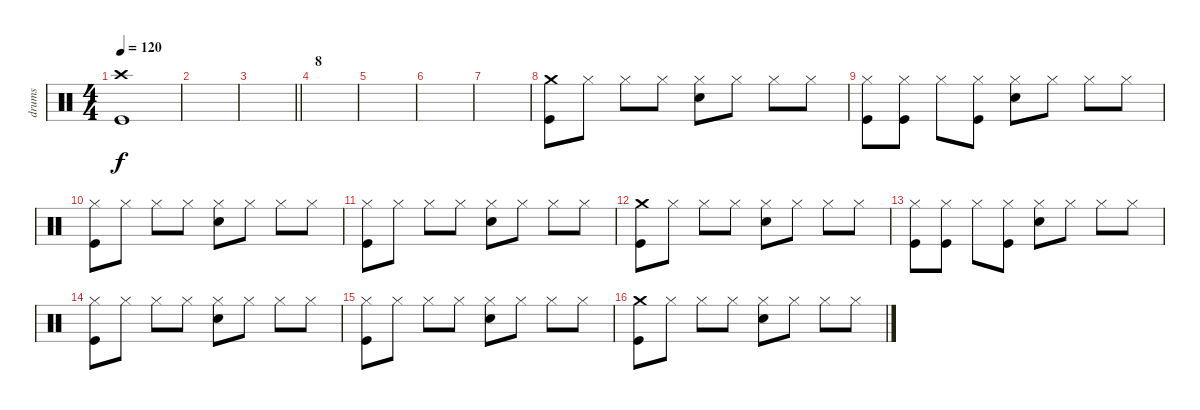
\track ("drums" "drums") {instrument percussion}
\staff {score}
\articulation defaults
\ts (4 4)
\tempo 120
\clef neutral
\ks c
("Crash high (hit)" "Kick (hit)").1{dy f} |
|
\barLineRight lightlight
|
\section ("" "8")
|
|
|
|
("Crash medium (hit)" "Kick (hit)").8 "Hi-Hat (closed)".8 "Hi-Hat (closed)".8 "Hi-Hat (closed)".8 ("Hi-Hat (closed)" "Electric Snare (hit)").8 "Hi-Hat (closed)".8 "Hi-Hat (closed)".8 "Hi-Hat (closed)".8 |
("Hi-Hat (closed)" "Kick (hit)").8 ("Hi-Hat (closed)" "Kick (hit)").8 "Hi-Hat (closed)".8 ("Hi-Hat (closed)" "Kick (hit)").8 ("Hi-Hat (closed)" "Electric Snare (hit)").8 "Hi-Hat (closed)".8 "Hi-Hat (closed)".8 "Hi-Hat (closed)".8 |
("Hi-Hat (closed)" "Kick (hit)").8 "Hi-Hat (closed)".8 "Hi-Hat (closed)".8 "Hi-Hat (closed)".8 ("Hi-Hat (closed)" "Electric Snare (hit)").8 "Hi-Hat (closed)".8 "Hi-Hat (closed)".8 "Hi-Hat (closed)".8 |
("Hi-Hat (closed)" "Kick (hit)").8 "Hi-Hat (closed)".8 "Hi-Hat (closed)".8 "Hi-Hat (closed)".8 ("Hi-Hat (closed)" "Electric Snare (hit)").8 "Hi-Hat (closed)".8 "Hi-Hat (closed)".8 "Hi-Hat (closed)".8 |
("Crash medium (hit)" "Kick (hit)").8 "Hi-Hat (closed)".8 "Hi-Hat (closed)".8 "Hi-Hat (closed)".8 ("Hi-Hat (closed)" "Electric Snare (hit)").8 "Hi-Hat (closed)".8 "Hi-Hat (closed)".8 "Hi-Hat (closed)".8 |
("Hi-Hat (closed)" "Kick (hit)").8 ("Hi-Hat (closed)" "Kick (hit)").8 "Hi-Hat (closed)".8 ("Hi-Hat (closed)" "Kick (hit)").8 ("Hi-Hat (closed)" "Electric Snare (hit)").8 "Hi-Hat (closed)".8 "Hi-Hat (closed)".8 "Hi-Hat (closed)".8 |
("Hi-Hat (closed)" "Kick (hit)").8 "Hi-Hat (closed)".8 "Hi-Hat (closed)".8 "Hi-Hat (closed)".8 ("Hi-Hat (closed)" "Electric Snare (hit)").8 "Hi-Hat (closed)".8 "Hi-Hat (closed)".8 "Hi-Hat (closed)".8 |
("Hi-Hat (closed)" "Kick (hit)").8 "Hi-Hat (closed)".8 "Hi-Hat (closed)".8 "Hi-Hat (closed)".8 ("Hi-Hat (closed)" "Electric Snare (hit)").8 "Hi-Hat (closed)".8 "Hi-Hat (closed)".8 "Hi-Hat (closed)".8 |
("Crash medium (hit)" "Kick (hit)").8 "Hi-Hat (closed)".8 "Hi-Hat (closed)".8 "Hi-Hat (closed)".8 ("Hi-Hat (closed)" "Electric Snare (hit)").8 "Hi-Hat (closed)".8 "Hi-Hat (closed)".8 "Hi-Hat (closed)".8
